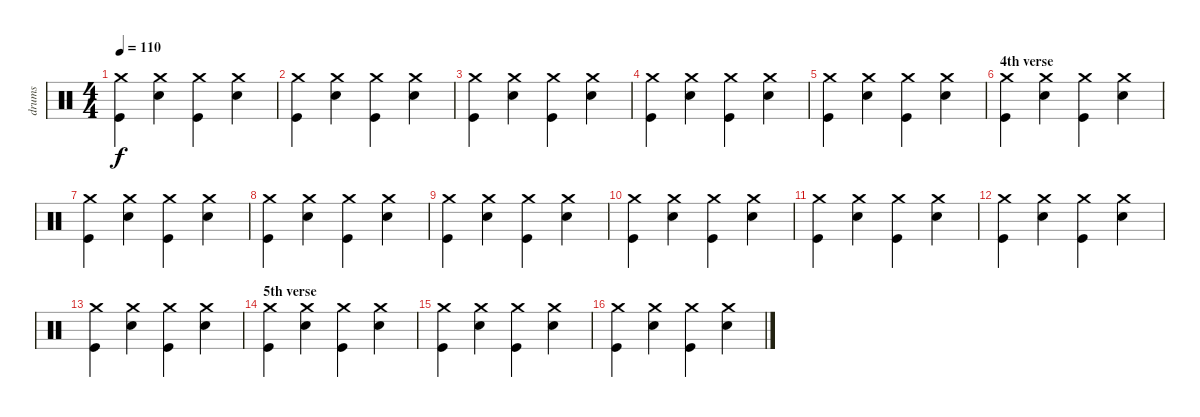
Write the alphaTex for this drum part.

\track ("drums" "drums") {instrument percussion}
\staff {score}
\articulation defaults
\ts (4 4)
\tempo 110
\clef neutral
\ks c
("Crash medium (hit)" "Kick (hit)").4{dy f} ("Crash medium (hit)" "Snare (hit) 2").4 ("Crash medium (hit)" "Kick (hit)").4 ("Crash medium (hit)" "Snare (hit) 2").4 |
("Crash medium (hit)" "Kick (hit)").4 ("Crash medium (hit)" "Snare (hit) 2").4 ("Crash medium (hit)" "Kick (hit)").4 ("Crash medium (hit)" "Snare (hit) 2").4 |
("Crash medium (hit)" "Kick (hit)").4 ("Crash medium (hit)" "Snare (hit) 2").4 ("Crash medium (hit)" "Kick (hit)").4 ("Crash medium (hit)" "Snare (hit) 2").4 |
("Crash medium (hit)" "Kick (hit)").4 ("Crash medium (hit)" "Snare (hit) 2").4 ("Crash medium (hit)" "Kick (hit)").4 ("Crash medium (hit)" "Snare (hit) 2").4 |
("Crash medium (hit)" "Kick (hit)").4 ("Crash medium (hit)" "Snare (hit) 2").4 ("Crash medium (hit)" "Kick (hit)").4 ("Crash medium (hit)" "Snare (hit) 2").4 |
\section ("" "4th verse")
("Crash medium (hit)" "Kick (hit)").4 ("Crash medium (hit)" "Snare (hit) 2").4 ("Crash medium (hit)" "Kick (hit)").4 ("Crash medium (hit)" "Snare (hit) 2").4 |
("Crash medium (hit)" "Kick (hit)").4 ("Crash medium (hit)" "Snare (hit) 2").4 ("Crash medium (hit)" "Kick (hit)").4 ("Crash medium (hit)" "Snare (hit) 2").4 |
("Crash medium (hit)" "Kick (hit)").4 ("Crash medium (hit)" "Snare (hit) 2").4 ("Crash medium (hit)" "Kick (hit)").4 ("Crash medium (hit)" "Snare (hit) 2").4 |
("Crash medium (hit)" "Kick (hit)").4 ("Crash medium (hit)" "Snare (hit) 2").4 ("Crash medium (hit)" "Kick (hit)").4 ("Crash medium (hit)" "Snare (hit) 2").4 |
("Crash medium (hit)" "Kick (hit)").4 ("Crash medium (hit)" "Snare (hit) 2").4 ("Crash medium (hit)" "Kick (hit)").4 ("Crash medium (hit)" "Snare (hit) 2").4 |
("Crash medium (hit)" "Kick (hit)").4 ("Crash medium (hit)" "Snare (hit) 2").4 ("Crash medium (hit)" "Kick (hit)").4 ("Crash medium (hit)" "Snare (hit) 2").4 |
("Crash medium (hit)" "Kick (hit)").4 ("Crash medium (hit)" "Snare (hit) 2").4 ("Crash medium (hit)" "Kick (hit)").4 ("Crash medium (hit)" "Snare (hit) 2").4 |
("Crash medium (hit)" "Kick (hit)").4 ("Crash medium (hit)" "Snare (hit) 2").4 ("Crash medium (hit)" "Kick (hit)").4 ("Crash medium (hit)" "Snare (hit) 2").4 |
\section ("" "5th verse")
("Crash medium (hit)" "Kick (hit)").4 ("Crash medium (hit)" "Snare (hit) 2").4 ("Crash medium (hit)" "Kick (hit)").4 ("Crash medium (hit)" "Snare (hit) 2").4 |
("Crash medium (hit)" "Kick (hit)").4 ("Crash medium (hit)" "Snare (hit) 2").4 ("Crash medium (hit)" "Kick (hit)").4 ("Crash medium (hit)" "Snare (hit) 2").4 |
("Crash medium (hit)" "Kick (hit)").4 ("Crash medium (hit)" "Snare (hit) 2").4 ("Crash medium (hit)" "Kick (hit)").4 ("Crash medium (hit)" "Snare (hit) 2").4
